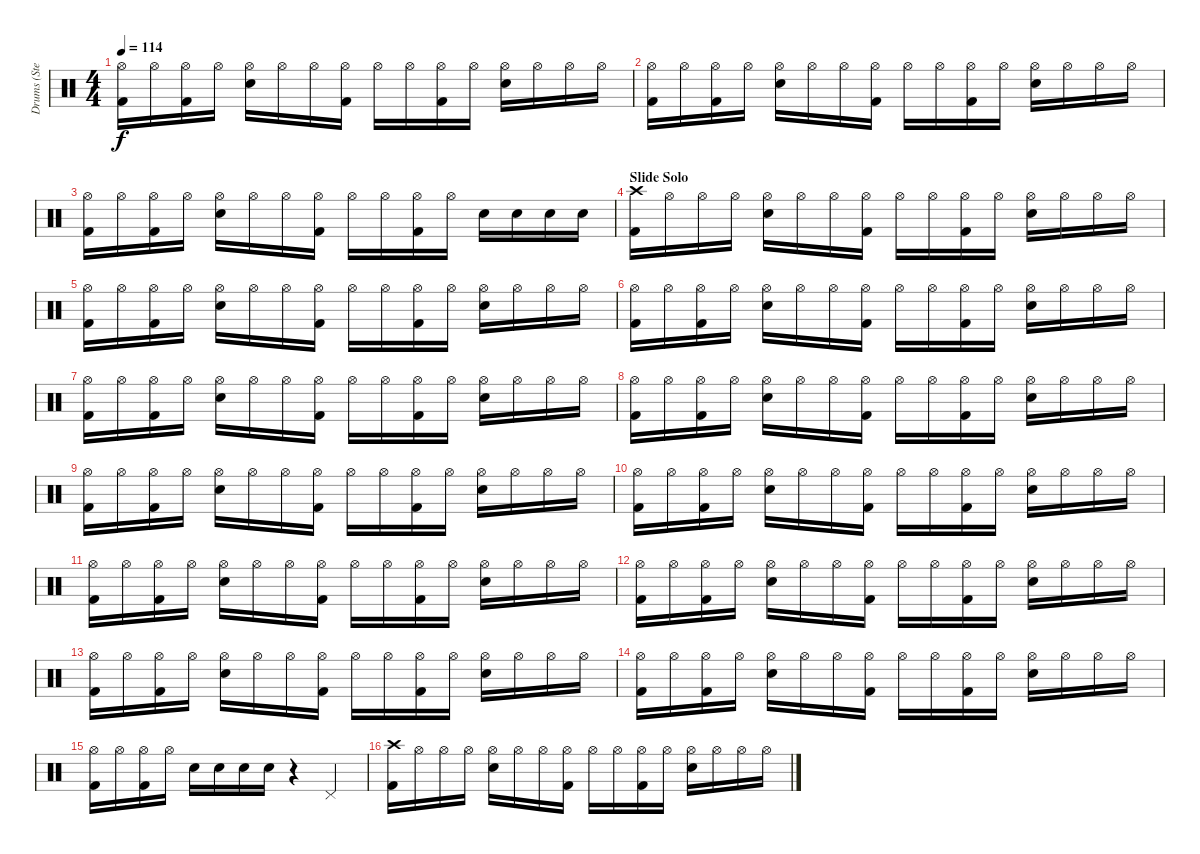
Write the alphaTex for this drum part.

\track ("Drums (Steven)" "Drums (Ste") {instrument percussion}
\staff {score}
\articulation defaults
\ts (4 4)
\tempo 114
\clef neutral
\ks c
("Hi-Hat (open)" "Kick (hit) 2").16{dy f} "Hi-Hat (open)".16 ("Hi-Hat (open)" "Kick (hit) 2").16 "Hi-Hat (open)".16 ("Hi-Hat (open)" "Snare (hit) 2").16 "Hi-Hat (open)".16 "Hi-Hat (open)".16 ("Hi-Hat (open)" "Kick (hit) 2").16 "Hi-Hat (open)".16 "Hi-Hat (open)".16 ("Hi-Hat (open)" "Kick (hit) 2").16 "Hi-Hat (open)".16 ("Hi-Hat (open)" "Snare (hit) 2").16 "Hi-Hat (open)".16 "Hi-Hat (open)".16 "Hi-Hat (open)".16 |
("Hi-Hat (open)" "Kick (hit) 2").16 "Hi-Hat (open)".16 ("Hi-Hat (open)" "Kick (hit) 2").16 "Hi-Hat (open)".16 ("Hi-Hat (open)" "Snare (hit) 2").16 "Hi-Hat (open)".16 "Hi-Hat (open)".16 ("Hi-Hat (open)" "Kick (hit) 2").16 "Hi-Hat (open)".16 "Hi-Hat (open)".16 ("Hi-Hat (open)" "Kick (hit) 2").16 "Hi-Hat (open)".16 ("Hi-Hat (open)" "Snare (hit) 2").16 "Hi-Hat (open)".16 "Hi-Hat (open)".16 "Hi-Hat (open)".16 |
("Hi-Hat (open)" "Kick (hit) 2").16 "Hi-Hat (open)".16 ("Hi-Hat (open)" "Kick (hit) 2").16 "Hi-Hat (open)".16 ("Hi-Hat (open)" "Snare (hit) 2").16 "Hi-Hat (open)".16 "Hi-Hat (open)".16 ("Hi-Hat (open)" "Kick (hit) 2").16 "Hi-Hat (open)".16 "Hi-Hat (open)".16 ("Hi-Hat (open)" "Kick (hit) 2").16 "Hi-Hat (open)".16 "Snare (hit) 2".16 "Snare (hit) 2".16 "Snare (hit) 2".16 "Snare (hit) 2".16 |
\section ("" "Slide Solo")
("Crash high (hit)" "Kick (hit) 2").16 "Hi-Hat (open)".16 "Hi-Hat (open)".16 "Hi-Hat (open)".16 ("Hi-Hat (open)" "Snare (hit) 2").16 "Hi-Hat (open)".16 "Hi-Hat (open)".16 ("Hi-Hat (open)" "Kick (hit) 2").16 "Hi-Hat (open)".16 "Hi-Hat (open)".16 ("Hi-Hat (open)" "Kick (hit) 2").16 "Hi-Hat (open)".16 ("Hi-Hat (open)" "Snare (hit) 2").16 "Hi-Hat (open)".16 "Hi-Hat (open)".16 "Hi-Hat (open)".16 |
("Hi-Hat (open)" "Kick (hit) 2").16 "Hi-Hat (open)".16 ("Hi-Hat (open)" "Kick (hit) 2").16 "Hi-Hat (open)".16 ("Hi-Hat (open)" "Snare (hit) 2").16 "Hi-Hat (open)".16 "Hi-Hat (open)".16 ("Hi-Hat (open)" "Kick (hit) 2").16 "Hi-Hat (open)".16 "Hi-Hat (open)".16 ("Hi-Hat (open)" "Kick (hit) 2").16 "Hi-Hat (open)".16 ("Hi-Hat (open)" "Snare (hit) 2").16 "Hi-Hat (open)".16 "Hi-Hat (open)".16 "Hi-Hat (open)".16 |
("Hi-Hat (open)" "Kick (hit) 2").16 "Hi-Hat (open)".16 ("Hi-Hat (open)" "Kick (hit) 2").16 "Hi-Hat (open)".16 ("Hi-Hat (open)" "Snare (hit) 2").16 "Hi-Hat (open)".16 "Hi-Hat (open)".16 ("Hi-Hat (open)" "Kick (hit) 2").16 "Hi-Hat (open)".16 "Hi-Hat (open)".16 ("Hi-Hat (open)" "Kick (hit) 2").16 "Hi-Hat (open)".16 ("Hi-Hat (open)" "Snare (hit) 2").16 "Hi-Hat (open)".16 "Hi-Hat (open)".16 "Hi-Hat (open)".16 |
("Hi-Hat (open)" "Kick (hit) 2").16 "Hi-Hat (open)".16 ("Hi-Hat (open)" "Kick (hit) 2").16 "Hi-Hat (open)".16 ("Hi-Hat (open)" "Snare (hit) 2").16 "Hi-Hat (open)".16 "Hi-Hat (open)".16 ("Hi-Hat (open)" "Kick (hit) 2").16 "Hi-Hat (open)".16 "Hi-Hat (open)".16 ("Hi-Hat (open)" "Kick (hit) 2").16 "Hi-Hat (open)".16 ("Hi-Hat (open)" "Snare (hit) 2").16 "Hi-Hat (open)".16 "Hi-Hat (open)".16 "Hi-Hat (open)".16 |
("Hi-Hat (open)" "Kick (hit) 2").16 "Hi-Hat (open)".16 ("Hi-Hat (open)" "Kick (hit) 2").16 "Hi-Hat (open)".16 ("Hi-Hat (open)" "Snare (hit) 2").16 "Hi-Hat (open)".16 "Hi-Hat (open)".16 ("Hi-Hat (open)" "Kick (hit) 2").16 "Hi-Hat (open)".16 "Hi-Hat (open)".16 ("Hi-Hat (open)" "Kick (hit) 2").16 "Hi-Hat (open)".16 ("Hi-Hat (open)" "Snare (hit) 2").16 "Hi-Hat (open)".16 "Hi-Hat (open)".16 "Hi-Hat (open)".16 |
("Hi-Hat (open)" "Kick (hit) 2").16 "Hi-Hat (open)".16 ("Hi-Hat (open)" "Kick (hit) 2").16 "Hi-Hat (open)".16 ("Hi-Hat (open)" "Snare (hit) 2").16 "Hi-Hat (open)".16 "Hi-Hat (open)".16 ("Hi-Hat (open)" "Kick (hit) 2").16 "Hi-Hat (open)".16 "Hi-Hat (open)".16 ("Hi-Hat (open)" "Kick (hit) 2").16 "Hi-Hat (open)".16 ("Hi-Hat (open)" "Snare (hit) 2").16 "Hi-Hat (open)".16 "Hi-Hat (open)".16 "Hi-Hat (open)".16 |
("Hi-Hat (open)" "Kick (hit) 2").16 "Hi-Hat (open)".16 ("Hi-Hat (open)" "Kick (hit) 2").16 "Hi-Hat (open)".16 ("Hi-Hat (open)" "Snare (hit) 2").16 "Hi-Hat (open)".16 "Hi-Hat (open)".16 ("Hi-Hat (open)" "Kick (hit) 2").16 "Hi-Hat (open)".16 "Hi-Hat (open)".16 ("Hi-Hat (open)" "Kick (hit) 2").16 "Hi-Hat (open)".16 ("Hi-Hat (open)" "Snare (hit) 2").16 "Hi-Hat (open)".16 "Hi-Hat (open)".16 "Hi-Hat (open)".16 |
("Hi-Hat (open)" "Kick (hit) 2").16 "Hi-Hat (open)".16 ("Hi-Hat (open)" "Kick (hit) 2").16 "Hi-Hat (open)".16 ("Hi-Hat (open)" "Snare (hit) 2").16 "Hi-Hat (open)".16 "Hi-Hat (open)".16 ("Hi-Hat (open)" "Kick (hit) 2").16 "Hi-Hat (open)".16 "Hi-Hat (open)".16 ("Hi-Hat (open)" "Kick (hit) 2").16 "Hi-Hat (open)".16 ("Hi-Hat (open)" "Snare (hit) 2").16 "Hi-Hat (open)".16 "Hi-Hat (open)".16 "Hi-Hat (open)".16 |
("Hi-Hat (open)" "Kick (hit) 2").16 "Hi-Hat (open)".16 ("Hi-Hat (open)" "Kick (hit) 2").16 "Hi-Hat (open)".16 ("Hi-Hat (open)" "Snare (hit) 2").16 "Hi-Hat (open)".16 "Hi-Hat (open)".16 ("Hi-Hat (open)" "Kick (hit) 2").16 "Hi-Hat (open)".16 "Hi-Hat (open)".16 ("Hi-Hat (open)" "Kick (hit) 2").16 "Hi-Hat (open)".16 ("Hi-Hat (open)" "Snare (hit) 2").16 "Hi-Hat (open)".16 "Hi-Hat (open)".16 "Hi-Hat (open)".16 |
("Hi-Hat (open)" "Kick (hit) 2").16 "Hi-Hat (open)".16 ("Hi-Hat (open)" "Kick (hit) 2").16 "Hi-Hat (open)".16 ("Hi-Hat (open)" "Snare (hit) 2").16 "Hi-Hat (open)".16 "Hi-Hat (open)".16 ("Hi-Hat (open)" "Kick (hit) 2").16 "Hi-Hat (open)".16 "Hi-Hat (open)".16 ("Hi-Hat (open)" "Kick (hit) 2").16 "Hi-Hat (open)".16 ("Hi-Hat (open)" "Snare (hit) 2").16 "Hi-Hat (open)".16 "Hi-Hat (open)".16 "Hi-Hat (open)".16 |
("Hi-Hat (open)" "Kick (hit) 2").16 "Hi-Hat (open)".16 ("Hi-Hat (open)" "Kick (hit) 2").16 "Hi-Hat (open)".16 ("Hi-Hat (open)" "Snare (hit) 2").16 "Hi-Hat (open)".16 "Hi-Hat (open)".16 ("Hi-Hat (open)" "Kick (hit) 2").16 "Hi-Hat (open)".16 "Hi-Hat (open)".16 ("Hi-Hat (open)" "Kick (hit) 2").16 "Hi-Hat (open)".16 ("Hi-Hat (open)" "Snare (hit) 2").16 "Hi-Hat (open)".16 "Hi-Hat (open)".16 "Hi-Hat (open)".16 |
("Hi-Hat (open)" "Kick (hit) 2").16 "Hi-Hat (open)".16 ("Hi-Hat (open)" "Kick (hit) 2").16 "Hi-Hat (open)".16 "Snare (hit) 2".16 "Snare (hit) 2".16 "Snare (hit) 2".16 "Snare (hit) 2".16 r.4 "Pedal Hi-Hat (hit)".4 |
("Crash high (hit)" "Kick (hit) 2").16 "Hi-Hat (open)".16 "Hi-Hat (open)".16 "Hi-Hat (open)".16 ("Hi-Hat (open)" "Snare (hit) 2").16 "Hi-Hat (open)".16 "Hi-Hat (open)".16 ("Hi-Hat (open)" "Kick (hit) 2").16 "Hi-Hat (open)".16 "Hi-Hat (open)".16 ("Hi-Hat (open)" "Kick (hit) 2").16 "Hi-Hat (open)".16 ("Hi-Hat (open)" "Snare (hit) 2").16 "Hi-Hat (open)".16 "Hi-Hat (open)".16 "Hi-Hat (open)".16
